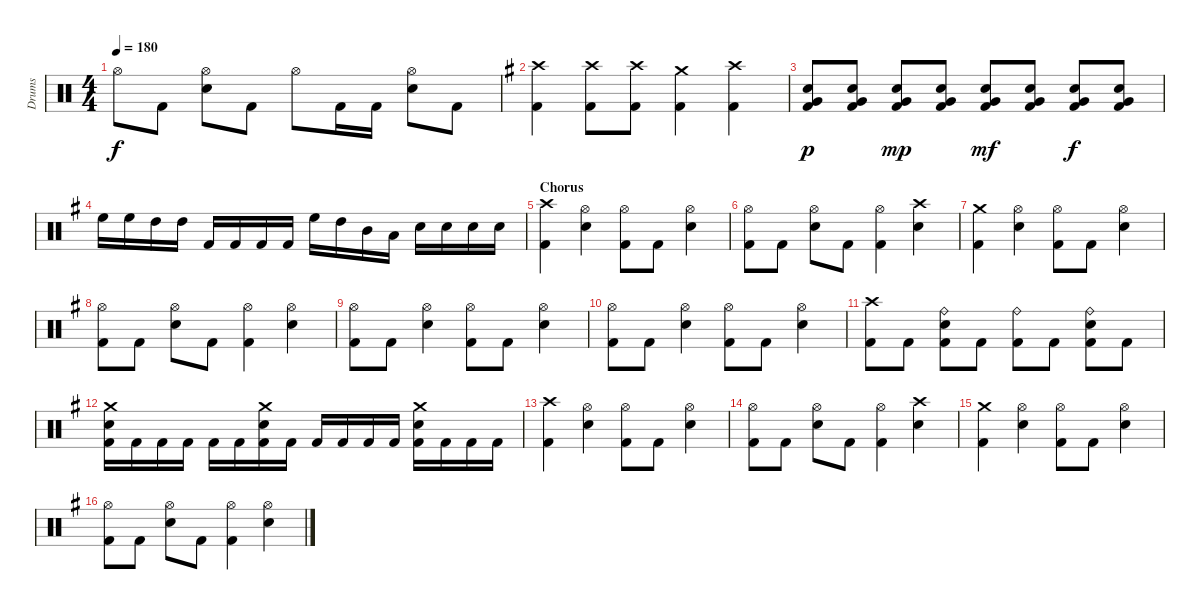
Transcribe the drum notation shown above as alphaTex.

\track ("Drums" "Drums") {instrument percussion}
\staff {score}
\articulation defaults
\ts (4 4)
\tempo 180
\clef neutral
\ks aminor "Hi-Hat (open)".8{dy f} "Kick (hit) 2".8
("Electric Snare (hit)" "Hi-Hat (open)").8 "Kick (hit) 2".8 "Hi-Hat (open)".8 "Kick (hit) 2".16 "Kick (hit) 2".16 ("Electric Snare (hit)" "Hi-Hat (open)").8 "Kick (hit) 2".8 |
\ks eminor
("Kick (hit) 2" "Crash high (hit)").4 ("Kick (hit) 2" "Crash high (hit)").8 ("Kick (hit) 2" "Crash high (hit)").8 ("Kick (hit) 2" "Crash medium (hit)").4 ("Kick (hit) 2" "Crash high (hit)").4 |
("Kick (hit) 2" "Electric Snare (hit)" "Very Low Tom (hit)").8{dy p} ("Kick (hit) 2" "Electric Snare (hit)" "Very Low Tom (hit)").8 ("Kick (hit) 2" "Electric Snare (hit)" "Very Low Tom (hit)").8{dy mp} ("Kick (hit) 2" "Electric Snare (hit)" "Very Low Tom (hit)").8 ("Kick (hit) 2" "Electric Snare (hit)" "Very Low Tom (hit)").8{dy mf} ("Kick (hit) 2" "Electric Snare (hit)" "Very Low Tom (hit)").8 ("Kick (hit) 2" "Electric Snare (hit)" "Very Low Tom (hit)").8{dy f} ("Kick (hit) 2" "Electric Snare (hit)" "Very Low Tom (hit)").8 |
"High Floor Tom (hit)".16 "High Floor Tom (hit)".16 "High Tom (hit)".16 "High Tom (hit)".16 "Kick (hit) 2".16 "Kick (hit) 2".16 "Kick (hit) 2".16 "Kick (hit) 2".16 "High Floor Tom (hit)".16 "High Tom (hit)".16 "Mid Tom (hit)".16 "Low Tom (hit)".16 "Electric Snare (hit)".16 "Electric Snare (hit)".16 "Electric Snare (hit)".16 "Electric Snare (hit)".16 |
\section ("" "Chorus")
("Kick (hit) 2" "Crash high (hit)").4 ("Electric Snare (hit)" "Hi-Hat (open)").4 ("Kick (hit) 2" "Hi-Hat (open)").8 "Kick (hit) 2".8 ("Electric Snare (hit)" "Hi-Hat (open)").4 |
("Kick (hit) 2" "Hi-Hat (open)").8 "Kick (hit) 2".8 ("Electric Snare (hit)" "Hi-Hat (open)").8 "Kick (hit) 2".8 ("Kick (hit) 2" "Hi-Hat (open)").4 ("Electric Snare (hit)" "Crash high (hit)").4 |
("Kick (hit) 2" "Crash medium (hit)").4 ("Electric Snare (hit)" "Hi-Hat (open)").4 ("Kick (hit) 2" "Hi-Hat (open)").8 "Kick (hit) 2".8 ("Electric Snare (hit)" "Hi-Hat (open)").4 |
("Kick (hit) 2" "Hi-Hat (open)").8 "Kick (hit) 2".8 ("Electric Snare (hit)" "Hi-Hat (open)").8 "Kick (hit) 2".8 ("Kick (hit) 2" "Hi-Hat (open)").4 ("Electric Snare (hit)" "Hi-Hat (open)").4 |
("Kick (hit) 2" "Hi-Hat (open)").8 "Kick (hit) 2".8 ("Electric Snare (hit)" "Hi-Hat (open)").4 ("Kick (hit) 2" "Hi-Hat (open)").8 "Kick (hit) 2".8 ("Electric Snare (hit)" "Hi-Hat (open)").4 |
("Kick (hit) 2" "Hi-Hat (open)").8 "Kick (hit) 2".8 ("Electric Snare (hit)" "Hi-Hat (open)").4 ("Kick (hit) 2" "Hi-Hat (open)").8 "Kick (hit) 2".8 ("Electric Snare (hit)" "Hi-Hat (open)").4 |
("Kick (hit) 2" "Crash high (hit)").8 "Kick (hit) 2".8 ("Kick (hit) 2" "Electric Snare (hit)" "Ride (bell)").8 "Kick (hit) 2".8 ("Kick (hit) 2" "Ride (bell)").8 "Kick (hit) 2".8 ("Kick (hit) 2" "Electric Snare (hit)" "Ride (bell)").8 "Kick (hit) 2".8 |
("Kick (hit) 2" "Electric Snare (hit)" "Crash medium (hit)").16 "Kick (hit) 2".16 "Kick (hit) 2".16 "Kick (hit) 2".16 "Kick (hit) 2".16 "Kick (hit) 2".16 ("Kick (hit) 2" "Electric Snare (hit)" "Crash medium (hit)").16 "Kick (hit) 2".16 "Kick (hit) 2".16 "Kick (hit) 2".16 "Kick (hit) 2".16 "Kick (hit) 2".16 ("Kick (hit) 2" "Electric Snare (hit)" "Crash medium (hit)").16 "Kick (hit) 2".16 "Kick (hit) 2".16 "Kick (hit) 2".16 |
\section ("" "")
("Kick (hit) 2" "Crash high (hit)").4 ("Electric Snare (hit)" "Hi-Hat (open)").4 ("Kick (hit) 2" "Hi-Hat (open)").8 "Kick (hit) 2".8 ("Electric Snare (hit)" "Hi-Hat (open)").4 |
("Kick (hit) 2" "Hi-Hat (open)").8 "Kick (hit) 2".8 ("Electric Snare (hit)" "Hi-Hat (open)").8 "Kick (hit) 2".8 ("Kick (hit) 2" "Hi-Hat (open)").4 ("Electric Snare (hit)" "Crash high (hit)").4 |
("Kick (hit) 2" "Crash medium (hit)").4 ("Electric Snare (hit)" "Hi-Hat (open)").4 ("Kick (hit) 2" "Hi-Hat (open)").8 "Kick (hit) 2".8 ("Electric Snare (hit)" "Hi-Hat (open)").4 |
("Kick (hit) 2" "Hi-Hat (open)").8 "Kick (hit) 2".8 ("Electric Snare (hit)" "Hi-Hat (open)").8 "Kick (hit) 2".8 ("Kick (hit) 2" "Hi-Hat (open)").4 ("Electric Snare (hit)" "Hi-Hat (open)").4
